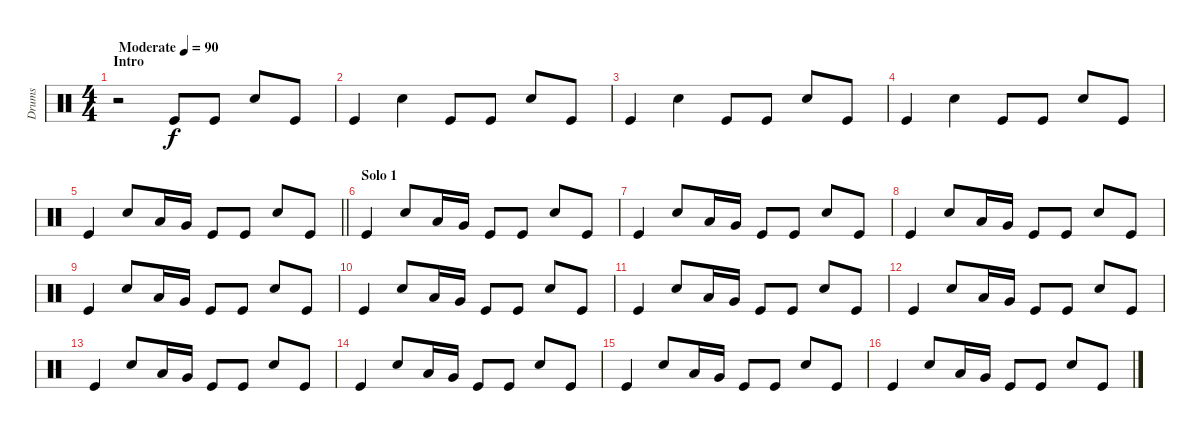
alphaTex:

\track ("Drums" "Drums") {instrument percussion}
\staff {score}
\articulation defaults
\ts (4 4)
\section ("" "Intro")
\tempo (90 "Moderate")
\clef neutral
\ks aminor
r.2{dy f} "Kick (hit)".8 "Kick (hit)".8 "Hand Clap (hit)".8 "Kick (hit)".8 |
"Kick (hit)".4 "Hand Clap (hit)".4 "Kick (hit)".8 "Kick (hit)".8 "Hand Clap (hit)".8 "Kick (hit)".8 |
"Kick (hit)".4 "Hand Clap (hit)".4 "Kick (hit)".8 "Kick (hit)".8 "Hand Clap (hit)".8 "Kick (hit)".8 |
"Kick (hit)".4 "Hand Clap (hit)".4 "Kick (hit)".8 "Kick (hit)".8 "Hand Clap (hit)".8 "Kick (hit)".8 |
\barLineRight lightlight "Kick (hit)".4 "Hand Clap (hit)".8 "Low Tom (hit)".16 "Very Low Tom (hit)".16 "Kick (hit)".8 "Kick (hit)".8 "Hand Clap (hit)".8 "Kick (hit)".8
|
\section ("" "Solo 1")
"Kick (hit)".4 "Hand Clap (hit)".8 "Low Tom (hit)".16 "Very Low Tom (hit)".16 "Kick (hit)".8 "Kick (hit)".8 "Hand Clap (hit)".8 "Kick (hit)".8 |
"Kick (hit)".4 "Hand Clap (hit)".8 "Low Tom (hit)".16 "Very Low Tom (hit)".16 "Kick (hit)".8 "Kick (hit)".8 "Hand Clap (hit)".8 "Kick (hit)".8 |
"Kick (hit)".4 "Hand Clap (hit)".8 "Low Tom (hit)".16 "Very Low Tom (hit)".16 "Kick (hit)".8 "Kick (hit)".8 "Hand Clap (hit)".8 "Kick (hit)".8 |
"Kick (hit)".4 "Hand Clap (hit)".8 "Low Tom (hit)".16 "Very Low Tom (hit)".16 "Kick (hit)".8 "Kick (hit)".8 "Hand Clap (hit)".8 "Kick (hit)".8 |
"Kick (hit)".4 "Hand Clap (hit)".8 "Low Tom (hit)".16 "Very Low Tom (hit)".16 "Kick (hit)".8 "Kick (hit)".8 "Hand Clap (hit)".8 "Kick (hit)".8 |
"Kick (hit)".4 "Hand Clap (hit)".8 "Low Tom (hit)".16 "Very Low Tom (hit)".16 "Kick (hit)".8 "Kick (hit)".8 "Hand Clap (hit)".8 "Kick (hit)".8 |
"Kick (hit)".4 "Hand Clap (hit)".8 "Low Tom (hit)".16 "Very Low Tom (hit)".16 "Kick (hit)".8 "Kick (hit)".8 "Hand Clap (hit)".8 "Kick (hit)".8 |
"Kick (hit)".4 "Hand Clap (hit)".8 "Low Tom (hit)".16 "Very Low Tom (hit)".16 "Kick (hit)".8 "Kick (hit)".8 "Hand Clap (hit)".8 "Kick (hit)".8 |
"Kick (hit)".4 "Hand Clap (hit)".8 "Low Tom (hit)".16 "Very Low Tom (hit)".16 "Kick (hit)".8 "Kick (hit)".8 "Hand Clap (hit)".8 "Kick (hit)".8 |
"Kick (hit)".4 "Hand Clap (hit)".8 "Low Tom (hit)".16 "Very Low Tom (hit)".16 "Kick (hit)".8 "Kick (hit)".8 "Hand Clap (hit)".8 "Kick (hit)".8 |
"Kick (hit)".4 "Hand Clap (hit)".8 "Low Tom (hit)".16 "Very Low Tom (hit)".16 "Kick (hit)".8 "Kick (hit)".8 "Hand Clap (hit)".8 "Kick (hit)".8
